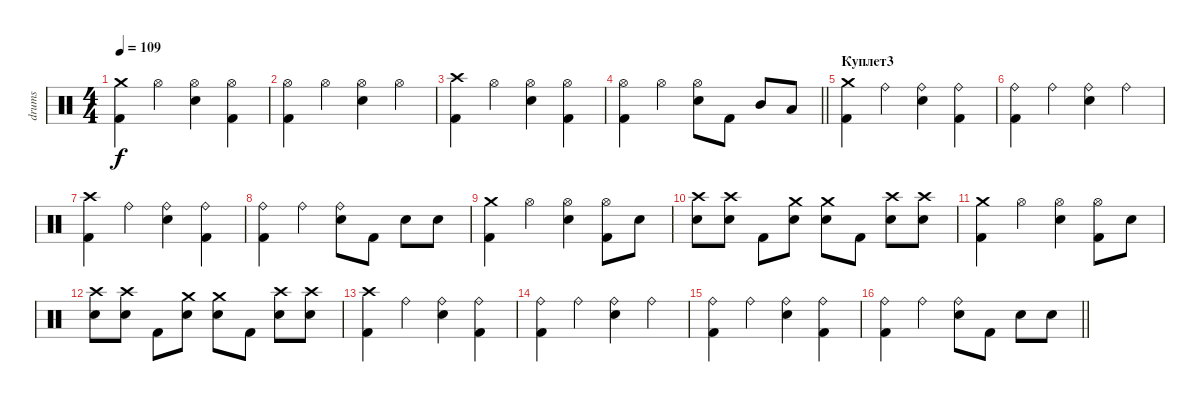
\track ("drums" "drums") {instrument percussion}
\staff {score}
\articulation defaults
\ts (4 4)
\tempo 109
\clef neutral
\ks c
("Kick (hit) 2" "Crash medium (hit)").4{dy f} "Hi-Hat (open)".4 ("Electric Snare (hit)" "Hi-Hat (open)").4 ("Kick (hit) 2" "Hi-Hat (open)").4 |
("Hi-Hat (open)" "Kick (hit) 2").4 "Hi-Hat (open)".4 ("Hi-Hat (open)" "Electric Snare (hit)").4 "Hi-Hat (open)".4 |
("Kick (hit) 2" "Crash high (hit)").4 "Hi-Hat (open)".4 ("Electric Snare (hit)" "Hi-Hat (open)").4 ("Kick (hit) 2" "Hi-Hat (open)").4 |
\barLineRight lightlight
("Hi-Hat (open)" "Kick (hit) 2").4 "Hi-Hat (open)".4 ("Electric Snare (hit)" "Hi-Hat (open)").8 "Kick (hit) 2".8 "Mid Tom (hit)".8 "Low Tom (hit)".8 |
\section ("" "Куплет3")
("Kick (hit) 2" "Crash medium (hit)").4 "Ride (bell)".4 ("Electric Snare (hit)" "Ride (bell)").4 ("Kick (hit) 2" "Ride (bell)").4 |
("Ride (bell)" "Kick (hit) 2").4 "Ride (bell)".4 ("Ride (bell)" "Electric Snare (hit)").4 "Ride (bell)".4 |
("Kick (hit) 2" "Crash high (hit)").4 "Ride (bell)".4 ("Electric Snare (hit)" "Ride (bell)").4 ("Kick (hit) 2" "Ride (bell)").4 |
("Ride (bell)" "Kick (hit) 2").4 "Ride (bell)".4 ("Electric Snare (hit)" "Ride (bell)").8 "Kick (hit) 2".8 "Electric Snare (hit)".8 "Electric Snare (hit)".8 |
("Kick (hit) 2" "Crash medium (hit)").4 "Hi-Hat (open)".4 ("Electric Snare (hit)" "Hi-Hat (open)").4 ("Kick (hit) 2" "Hi-Hat (open)").8 "Electric Snare (hit)".8 |
("Crash high (hit)" "Electric Snare (hit)").8 ("Crash high (hit)" "Electric Snare (hit)").8 "Kick (hit) 2".8 ("Crash medium (hit)" "Electric Snare (hit)").8 ("Crash medium (hit)" "Electric Snare (hit)").8 "Kick (hit) 2".8 ("Crash high (hit)" "Electric Snare (hit)").8 ("Crash high (hit)" "Electric Snare (hit)").8 |
("Kick (hit) 2" "Crash medium (hit)").4 "Hi-Hat (open)".4 ("Electric Snare (hit)" "Hi-Hat (open)").4 ("Kick (hit) 2" "Hi-Hat (open)").8 "Electric Snare (hit)".8 |
("Crash high (hit)" "Electric Snare (hit)").8 ("Crash high (hit)" "Electric Snare (hit)").8 "Kick (hit) 2".8 ("Crash medium (hit)" "Electric Snare (hit)").8 ("Crash medium (hit)" "Electric Snare (hit)").8 "Kick (hit) 2".8 ("Crash high (hit)" "Electric Snare (hit)").8 ("Crash high (hit)" "Electric Snare (hit)").8 |
("Crash high (hit)" "Kick (hit) 2").4 "Ride (bell)".4 ("Ride (bell)" "Electric Snare (hit)").4 ("Ride (bell)" "Kick (hit) 2").4 |
("Ride (bell)" "Kick (hit) 2").4 "Ride (bell)".4 ("Ride (bell)" "Electric Snare (hit)").4 "Ride (bell)".4 |
("Ride (bell)" "Kick (hit) 2").4 "Ride (bell)".4 ("Ride (bell)" "Electric Snare (hit)").4 ("Ride (bell)" "Kick (hit) 2").4 |
\barLineRight lightlight
("Ride (bell)" "Kick (hit) 2").4 "Ride (bell)".4 ("Ride (bell)" "Electric Snare (hit)").8 "Kick (hit) 2".8 "Electric Snare (hit)".8 "Electric Snare (hit)".8
